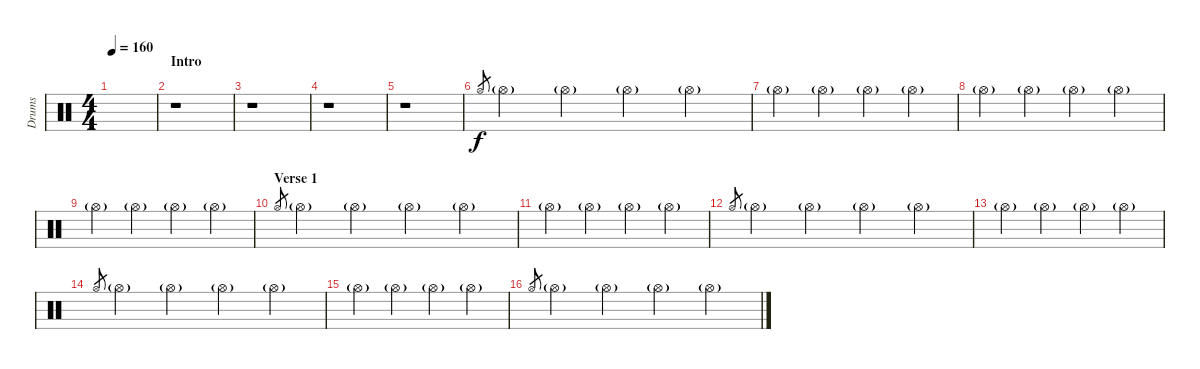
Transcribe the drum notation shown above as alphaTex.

\track ("Drums" "Drums") {instrument percussion}
\staff {score}
\articulation defaults
\ts (4 4)
\tempo 160
\clef neutral
\ks c
|
\section ("" "Intro")
r.1 |
r.1 |
r.1 |
r.1 |
"Hi-Hat (open)".8{gr} "Hi-Hat (open)"{g}.4 "Hi-Hat (open)"{g}.4 "Hi-Hat (open)"{g}.4 "Hi-Hat (open)"{g}.4 |
"Hi-Hat (open)"{g}.4 "Hi-Hat (open)"{g}.4 "Hi-Hat (open)"{g}.4 "Hi-Hat (open)"{g}.4 |
"Hi-Hat (open)"{g}.4 "Hi-Hat (open)"{g}.4 "Hi-Hat (open)"{g}.4 "Hi-Hat (open)"{g}.4 |
"Hi-Hat (open)"{g}.4 "Hi-Hat (open)"{g}.4 "Hi-Hat (open)"{g}.4 "Hi-Hat (open)"{g}.4 |
\section ("" "Verse 1")
"Hi-Hat (open)".8{gr} "Hi-Hat (open)"{g}.4 "Hi-Hat (open)"{g}.4 "Hi-Hat (open)"{g}.4 "Hi-Hat (open)"{g}.4 |
"Hi-Hat (open)"{g}.4 "Hi-Hat (open)"{g}.4 "Hi-Hat (open)"{g}.4 "Hi-Hat (open)"{g}.4 |
"Hi-Hat (open)".8{gr} "Hi-Hat (open)"{g}.4 "Hi-Hat (open)"{g}.4 "Hi-Hat (open)"{g}.4 "Hi-Hat (open)"{g}.4 |
"Hi-Hat (open)"{g}.4 "Hi-Hat (open)"{g}.4 "Hi-Hat (open)"{g}.4 "Hi-Hat (open)"{g}.4 |
"Hi-Hat (open)".8{gr} "Hi-Hat (open)"{g}.4 "Hi-Hat (open)"{g}.4 "Hi-Hat (open)"{g}.4 "Hi-Hat (open)"{g}.4 |
"Hi-Hat (open)"{g}.4 "Hi-Hat (open)"{g}.4 "Hi-Hat (open)"{g}.4 "Hi-Hat (open)"{g}.4 |
"Hi-Hat (open)".8{gr} "Hi-Hat (open)"{g}.4 "Hi-Hat (open)"{g}.4 "Hi-Hat (open)"{g}.4 "Hi-Hat (open)"{g}.4
